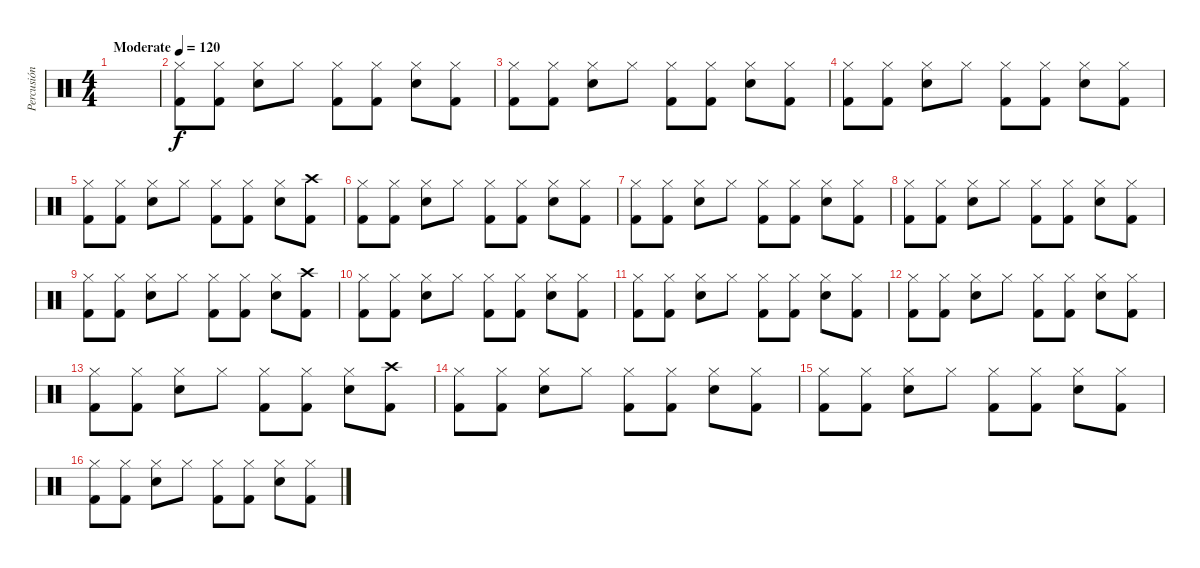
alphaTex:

\track ("Percusión" "Percusión") {instrument percussion}
\staff {score}
\articulation defaults
\ts (4 4)
\tempo (120 "Moderate")
\clef neutral
\ks c
|
("Hi-Hat (closed)" "Kick (hit) 2").8 ("Hi-Hat (closed)" "Kick (hit) 2").8 ("Hi-Hat (closed)" "Snare (hit) 2").8 "Hi-Hat (closed)".8 ("Hi-Hat (closed)" "Kick (hit) 2").8 ("Hi-Hat (closed)" "Kick (hit) 2").8 ("Hi-Hat (closed)" "Snare (hit) 2").8 ("Hi-Hat (closed)" "Kick (hit) 2").8 |
("Hi-Hat (closed)" "Kick (hit) 2").8 ("Hi-Hat (closed)" "Kick (hit) 2").8 ("Hi-Hat (closed)" "Snare (hit) 2").8 "Hi-Hat (closed)".8 ("Hi-Hat (closed)" "Kick (hit) 2").8 ("Hi-Hat (closed)" "Kick (hit) 2").8 ("Hi-Hat (closed)" "Snare (hit) 2").8 ("Hi-Hat (closed)" "Kick (hit) 2").8 |
("Hi-Hat (closed)" "Kick (hit) 2").8 ("Hi-Hat (closed)" "Kick (hit) 2").8 ("Hi-Hat (closed)" "Snare (hit) 2").8 "Hi-Hat (closed)".8 ("Hi-Hat (closed)" "Kick (hit) 2").8 ("Hi-Hat (closed)" "Kick (hit) 2").8 ("Hi-Hat (closed)" "Snare (hit) 2").8 ("Hi-Hat (closed)" "Kick (hit) 2").8 |
("Hi-Hat (closed)" "Kick (hit) 2").8 ("Hi-Hat (closed)" "Kick (hit) 2").8 ("Hi-Hat (closed)" "Snare (hit) 2").8 "Hi-Hat (closed)".8 ("Hi-Hat (closed)" "Kick (hit) 2").8 ("Hi-Hat (closed)" "Kick (hit) 2").8 ("Hi-Hat (closed)" "Snare (hit) 2").8 ("Crash high (hit)" "Kick (hit) 2").8 |
("Hi-Hat (closed)" "Kick (hit) 2").8 ("Hi-Hat (closed)" "Kick (hit) 2").8 ("Hi-Hat (closed)" "Snare (hit) 2").8 "Hi-Hat (closed)".8 ("Hi-Hat (closed)" "Kick (hit) 2").8 ("Hi-Hat (closed)" "Kick (hit) 2").8 ("Hi-Hat (closed)" "Snare (hit) 2").8 ("Hi-Hat (closed)" "Kick (hit) 2").8 |
("Hi-Hat (closed)" "Kick (hit) 2").8 ("Hi-Hat (closed)" "Kick (hit) 2").8 ("Hi-Hat (closed)" "Snare (hit) 2").8 "Hi-Hat (closed)".8 ("Hi-Hat (closed)" "Kick (hit) 2").8 ("Hi-Hat (closed)" "Kick (hit) 2").8 ("Hi-Hat (closed)" "Snare (hit) 2").8 ("Hi-Hat (closed)" "Kick (hit) 2").8 |
("Hi-Hat (closed)" "Kick (hit) 2").8 ("Hi-Hat (closed)" "Kick (hit) 2").8 ("Hi-Hat (closed)" "Snare (hit) 2").8 "Hi-Hat (closed)".8 ("Hi-Hat (closed)" "Kick (hit) 2").8 ("Hi-Hat (closed)" "Kick (hit) 2").8 ("Hi-Hat (closed)" "Snare (hit) 2").8 ("Hi-Hat (closed)" "Kick (hit) 2").8 |
("Hi-Hat (closed)" "Kick (hit) 2").8 ("Hi-Hat (closed)" "Kick (hit) 2").8 ("Hi-Hat (closed)" "Snare (hit) 2").8 "Hi-Hat (closed)".8 ("Hi-Hat (closed)" "Kick (hit) 2").8 ("Hi-Hat (closed)" "Kick (hit) 2").8 ("Hi-Hat (closed)" "Snare (hit) 2").8 ("Crash high (hit)" "Kick (hit) 2").8 |
("Hi-Hat (closed)" "Kick (hit) 2").8 ("Hi-Hat (closed)" "Kick (hit) 2").8 ("Hi-Hat (closed)" "Snare (hit) 2").8 "Hi-Hat (closed)".8 ("Hi-Hat (closed)" "Kick (hit) 2").8 ("Hi-Hat (closed)" "Kick (hit) 2").8 ("Hi-Hat (closed)" "Snare (hit) 2").8 ("Hi-Hat (closed)" "Kick (hit) 2").8 |
("Hi-Hat (closed)" "Kick (hit) 2").8 ("Hi-Hat (closed)" "Kick (hit) 2").8 ("Hi-Hat (closed)" "Snare (hit) 2").8 "Hi-Hat (closed)".8 ("Hi-Hat (closed)" "Kick (hit) 2").8 ("Hi-Hat (closed)" "Kick (hit) 2").8 ("Hi-Hat (closed)" "Snare (hit) 2").8 ("Hi-Hat (closed)" "Kick (hit) 2").8 |
("Hi-Hat (closed)" "Kick (hit) 2").8 ("Hi-Hat (closed)" "Kick (hit) 2").8 ("Hi-Hat (closed)" "Snare (hit) 2").8 "Hi-Hat (closed)".8 ("Hi-Hat (closed)" "Kick (hit) 2").8 ("Hi-Hat (closed)" "Kick (hit) 2").8 ("Hi-Hat (closed)" "Snare (hit) 2").8 ("Hi-Hat (closed)" "Kick (hit) 2").8 |
("Hi-Hat (closed)" "Kick (hit) 2").8 ("Hi-Hat (closed)" "Kick (hit) 2").8 ("Hi-Hat (closed)" "Snare (hit) 2").8 "Hi-Hat (closed)".8 ("Hi-Hat (closed)" "Kick (hit) 2").8 ("Hi-Hat (closed)" "Kick (hit) 2").8 ("Hi-Hat (closed)" "Snare (hit) 2").8 ("Crash high (hit)" "Kick (hit) 2").8 |
("Hi-Hat (closed)" "Kick (hit) 2").8 ("Hi-Hat (closed)" "Kick (hit) 2").8 ("Hi-Hat (closed)" "Snare (hit) 2").8 "Hi-Hat (closed)".8 ("Hi-Hat (closed)" "Kick (hit) 2").8 ("Hi-Hat (closed)" "Kick (hit) 2").8 ("Hi-Hat (closed)" "Snare (hit) 2").8 ("Hi-Hat (closed)" "Kick (hit) 2").8 |
("Hi-Hat (closed)" "Kick (hit) 2").8 ("Hi-Hat (closed)" "Kick (hit) 2").8 ("Hi-Hat (closed)" "Snare (hit) 2").8 "Hi-Hat (closed)".8 ("Hi-Hat (closed)" "Kick (hit) 2").8 ("Hi-Hat (closed)" "Kick (hit) 2").8 ("Hi-Hat (closed)" "Snare (hit) 2").8 ("Hi-Hat (closed)" "Kick (hit) 2").8 |
("Hi-Hat (closed)" "Kick (hit) 2").8 ("Hi-Hat (closed)" "Kick (hit) 2").8 ("Hi-Hat (closed)" "Snare (hit) 2").8 "Hi-Hat (closed)".8 ("Hi-Hat (closed)" "Kick (hit) 2").8 ("Hi-Hat (closed)" "Kick (hit) 2").8 ("Hi-Hat (closed)" "Snare (hit) 2").8 ("Hi-Hat (closed)" "Kick (hit) 2").8
